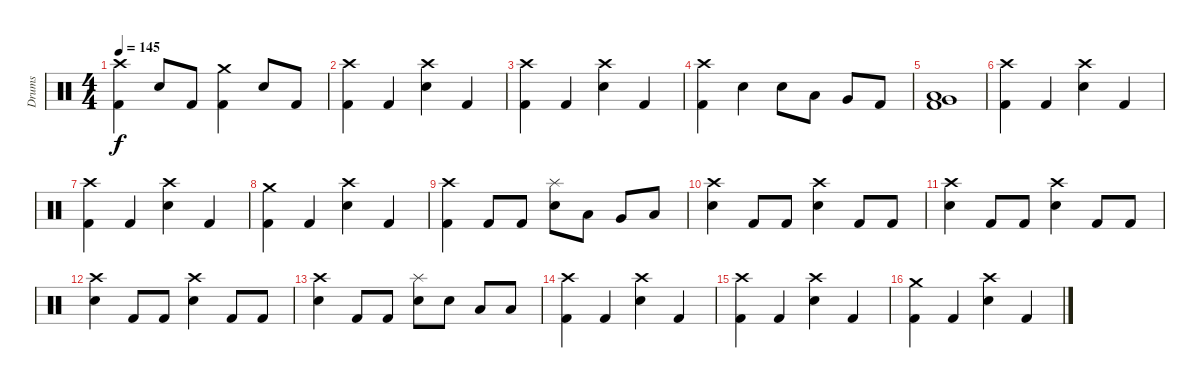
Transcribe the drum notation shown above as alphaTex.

\track ("Drums" "Drums") {instrument percussion}
\staff {score}
\articulation defaults
\ts (4 4)
\tempo 145
\clef neutral
\ks c
("Crash high (hit)" "Kick (hit) 2").4{dy f} "Snare (hit) 2".8 "Kick (hit) 2".8 ("Crash medium (hit)" "Kick (hit) 2").4 "Snare (hit) 2".8 "Kick (hit) 2".8 |
("Crash high (hit)" "Kick (hit) 2").4 "Kick (hit) 2".4 ("Crash high (hit)" "Snare (hit) 2").4 "Kick (hit) 2".4 |
("Crash high (hit)" "Kick (hit) 2").4 "Kick (hit) 2".4 ("Crash high (hit)" "Snare (hit) 2").4 "Kick (hit) 2".4 |
("Crash high (hit)" "Kick (hit) 2").4 "Snare (hit) 2".4 "Snare (hit) 2".8 "Low Tom (hit)".8 "Very Low Tom (hit)".8 "Kick (hit) 2".8 |
("Very Low Tom (hit)" "Low Floor Tom (hit)" "Kick (hit) 2").1 |
("Crash high (hit)" "Kick (hit) 2").4 "Kick (hit) 2".4 ("Crash high (hit)" "Snare (hit) 2").4 "Kick (hit) 2".4 |
("Crash high (hit)" "Kick (hit) 2").4 "Kick (hit) 2".4 ("Crash high (hit)" "Snare (hit) 2").4 "Kick (hit) 2".4 |
("Crash medium (hit)" "Kick (hit) 2").4 "Kick (hit) 2".4 ("Crash high (hit)" "Snare (hit) 2").4 "Kick (hit) 2".4 |
("Crash high (hit)" "Kick (hit) 2").4 "Kick (hit) 2".8 "Kick (hit) 2".8 ("Splash (hit)" "Snare (hit) 2").8 "Low Tom (hit)".8 "Very Low Tom (hit)".8 "Low Floor Tom (hit)".8 |
("Crash high (hit)" "Snare (hit) 2").4 "Kick (hit) 2".8 "Kick (hit) 2".8 ("Crash high (hit)" "Snare (hit) 2").4 "Kick (hit) 2".8 "Kick (hit) 2".8 |
("Crash high (hit)" "Snare (hit) 2").4 "Kick (hit) 2".8 "Kick (hit) 2".8 ("Crash high (hit)" "Snare (hit) 2").4 "Kick (hit) 2".8 "Kick (hit) 2".8 |
("Crash high (hit)" "Snare (hit) 2").4 "Kick (hit) 2".8 "Kick (hit) 2".8 ("Crash high (hit)" "Snare (hit) 2").4 "Kick (hit) 2".8 "Kick (hit) 2".8 |
("Crash high (hit)" "Snare (hit) 2").4 "Kick (hit) 2".8 "Kick (hit) 2".8 ("Splash (hit)" "Snare (hit) 2").8 "Snare (hit) 2".8 "Low Tom (hit)".8 "Low Tom (hit)".8 |
("Crash high (hit)" "Kick (hit) 2").4 "Kick (hit) 2".4 ("Crash high (hit)" "Snare (hit) 2").4 "Kick (hit) 2".4 |
("Crash high (hit)" "Kick (hit) 2").4 "Kick (hit) 2".4 ("Crash high (hit)" "Snare (hit) 2").4 "Kick (hit) 2".4 |
("Crash medium (hit)" "Kick (hit) 2").4 "Kick (hit) 2".4 ("Crash high (hit)" "Snare (hit) 2").4 "Kick (hit) 2".4
